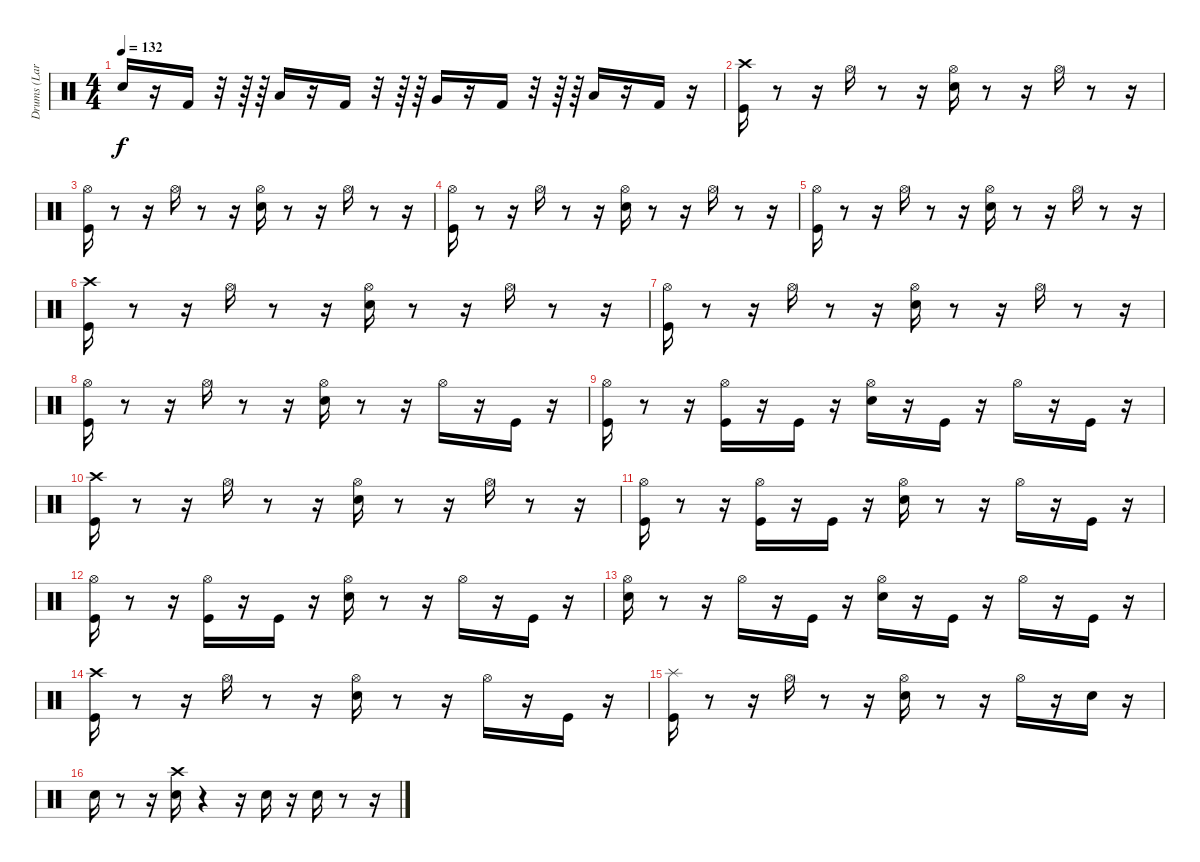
\track ("Drums (Lars)" "Drums (Lar") {instrument percussion}
\staff {score}
\articulation defaults
\ts (4 4)
\tempo 132
\clef neutral
\ks c "Snare (hit) 2".16{dy f}
r.16 "Kick (hit) 2".16 r.32 r.64 r.64 "Low Tom (hit)".16 r.16 "Kick (hit) 2".16 r.32 r.64 r.64 "Very Low Tom (hit)".16 r.16 "Kick (hit) 2".16 r.32 r.64 r.64 "Low Floor Tom (hit)".16 r.16 "Kick (hit) 2".16 r.16 |
("Crash high (hit)" "Kick (hit)").16 r.8 r.16 "Hi-Hat (open)".16 r.8 r.16 ("Hi-Hat (open)" "Snare (hit) 2").16 r.8 r.16 "Hi-Hat (open)".16 r.8 r.16 |
("Hi-Hat (open)" "Kick (hit)").16 r.8 r.16 "Hi-Hat (open)".16 r.8 r.16 ("Hi-Hat (open)" "Snare (hit) 2").16 r.8 r.16 "Hi-Hat (open)".16 r.8 r.16 |
("Kick (hit)" "Hi-Hat (open)").16 r.8 r.16 "Hi-Hat (open)".16 r.8 r.16 ("Hi-Hat (open)" "Snare (hit) 2").16 r.8 r.16 "Hi-Hat (open)".16 r.8 r.16 |
("Hi-Hat (open)" "Kick (hit)").16 r.8 r.16 "Hi-Hat (open)".16 r.8 r.16 ("Hi-Hat (open)" "Snare (hit) 2").16 r.8 r.16 "Hi-Hat (open)".16 r.8 r.16 |
("Crash high (hit)" "Kick (hit)").16 r.8 r.16 "Hi-Hat (open)".16 r.8 r.16 ("Hi-Hat (open)" "Snare (hit) 2").16 r.8 r.16 "Hi-Hat (open)".16 r.8 r.16 |
("Hi-Hat (open)" "Kick (hit)").16 r.8 r.16 "Hi-Hat (open)".16 r.8 r.16 ("Hi-Hat (open)" "Snare (hit) 2").16 r.8 r.16 "Hi-Hat (open)".16 r.8 r.16 |
("Kick (hit)" "Hi-Hat (open)").16 r.8 r.16 "Hi-Hat (open)".16 r.8 r.16 ("Hi-Hat (open)" "Snare (hit) 2").16 r.8 r.16 "Hi-Hat (open)".16 r.16 "Kick (hit)".16 r.16 |
("Hi-Hat (open)" "Kick (hit)").16 r.8 r.16 ("Hi-Hat (open)" "Kick (hit)").16 r.16 "Kick (hit)".16 r.16 ("Hi-Hat (open)" "Snare (hit) 2").16 r.16 "Kick (hit)".16 r.16 "Hi-Hat (open)".16 r.16 "Kick (hit)".16 r.16 |
("Kick (hit)" "Crash high (hit)").16 r.8 r.16 "Hi-Hat (open)".16 r.8 r.16 ("Hi-Hat (open)" "Snare (hit) 2").16 r.8 r.16 "Hi-Hat (open)".16 r.8 r.16 |
("Hi-Hat (open)" "Kick (hit)").16 r.8 r.16 ("Hi-Hat (open)" "Kick (hit)").16 r.16 "Kick (hit)".16 r.16 ("Hi-Hat (open)" "Snare (hit) 2").16 r.8 r.16 "Hi-Hat (open)".16 r.16 "Kick (hit)".16 r.16 |
("Kick (hit)" "Hi-Hat (open)").16 r.8 r.16 ("Hi-Hat (open)" "Kick (hit)").16 r.16 "Kick (hit)".16 r.16 ("Hi-Hat (open)" "Snare (hit) 2").16 r.8 r.16 "Hi-Hat (open)".16 r.16 "Kick (hit)".16 r.16 |
("Hi-Hat (open)" "Snare (hit) 2").16 r.8 r.16 "Hi-Hat (open)".16 r.16 "Kick (hit)".16 r.16 ("Hi-Hat (open)" "Snare (hit) 2").16 r.16 "Kick (hit)".16 r.16 "Hi-Hat (open)".16 r.16 "Kick (hit)".16 r.16 |
("Kick (hit)" "Crash high (hit)").16 r.8 r.16 "Hi-Hat (open)".16 r.8 r.16 ("Hi-Hat (open)" "Snare (hit) 2").16 r.8 r.16 "Hi-Hat (open)".16 r.16 "Kick (hit)".16 r.16 |
("Splash (hit)" "Kick (hit)").16 r.8 r.16 "Hi-Hat (open)".16 r.8 r.16 ("Hi-Hat (open)" "Snare (hit) 2").16 r.8 r.16 "Hi-Hat (open)".16 r.16 "Snare (hit) 2".16 r.16 |
"Snare (hit) 2".16 r.8 r.16 ("Snare (hit) 2" "Crash high (hit)").16 r.4 r.16 "Snare (hit) 2".16 r.16 "Snare (hit) 2".16 r.8 r.16
